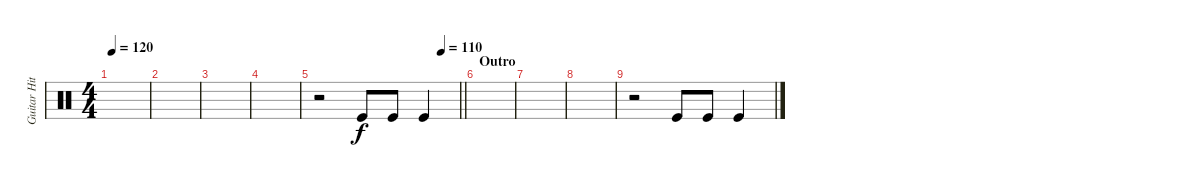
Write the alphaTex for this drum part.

\track ("Guitar Hit" "Guitar Hit") {instrument percussion}
\staff {score}
\articulation defaults
\ts (4 4)
\tempo 120
\clef neutral
\ks c
|
|
|
|
\tempo (110 0.875)
\barLineRight lightlight
r.2 "Kick (hit)".8 "Kick (hit)".8 "Kick (hit)".4 |
\section ("" "Outro")
|
|
|
r.2 "Kick (hit)".8 "Kick (hit)".8 "Kick (hit)".4
